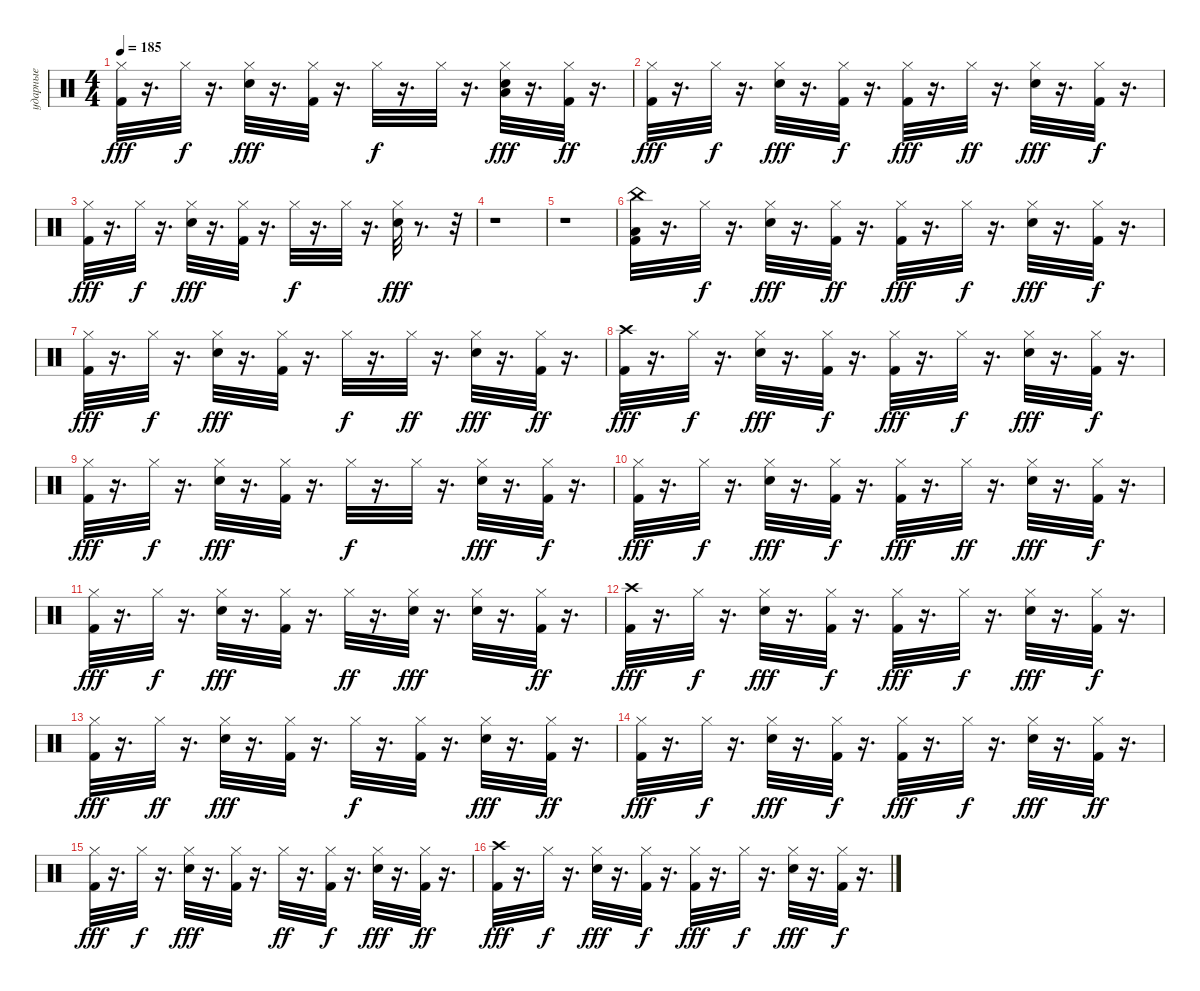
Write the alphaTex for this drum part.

\track ("ударные" "ударные") {instrument percussion}
\staff {score}
\articulation defaults
\ts (4 4)
\tempo 185
\clef neutral
\ks c
("Hi-Hat (closed)" "Kick (hit) 2").32{dy fff} r.16{d} "Hi-Hat (closed)".32{dy f} r.16{d} ("Hi-Hat (closed)" "Electric Snare (hit)").32{dy fff} r.16{d} ("Hi-Hat (closed)" "Kick (hit) 2").32 r.16{d} "Hi-Hat (closed)".32{dy f} r.16{d} "Hi-Hat (closed)".32 r.16{d} ("Low Floor Tom (hit)" "Hi-Hat (closed)" "Electric Snare (hit)").32{dy fff} r.16{d} ("Hi-Hat (closed)" "Kick (hit) 2").32{dy ff} r.16{d} |
("Hi-Hat (closed)" "Kick (hit) 2").32{dy fff} r.16{d} "Hi-Hat (closed)".32{dy f} r.16{d} ("Hi-Hat (closed)" "Electric Snare (hit)").32{dy fff} r.16{d} ("Hi-Hat (closed)" "Kick (hit) 2").32{dy f} r.16{d} ("Hi-Hat (closed)" "Kick (hit) 2").32{dy fff} r.16{d} "Hi-Hat (closed)".32{dy ff} r.16{d} ("Hi-Hat (closed)" "Electric Snare (hit)").32{dy fff} r.16{d} ("Hi-Hat (closed)" "Kick (hit) 2").32{dy f} r.16{d} |
("Hi-Hat (closed)" "Kick (hit) 2").32{dy fff} r.16{d} "Hi-Hat (closed)".32{dy f} r.16{d} ("Hi-Hat (closed)" "Electric Snare (hit)").32{dy fff} r.16{d} ("Hi-Hat (closed)" "Kick (hit) 2").32 r.16{d} "Hi-Hat (closed)".32{dy f} r.16{d} "Hi-Hat (closed)".32 r.16{d} ("Hi-Hat (closed)" "Electric Snare (hit)").32{dy fff} r.8{d} r.32 |
r.1 |
r.1 |
("Low Floor Tom (hit)" "China (hit)" "Kick (hit) 2").32 r.16{d} "Hi-Hat (closed)".32{dy f} r.16{d} ("Hi-Hat (closed)" "Electric Snare (hit)").32{dy fff} r.16{d} ("Hi-Hat (closed)" "Kick (hit) 2").32{dy ff} r.16{d} ("Hi-Hat (closed)" "Kick (hit) 2").32{dy fff} r.16{d} "Hi-Hat (closed)".32{dy f} r.16{d} ("Hi-Hat (closed)" "Electric Snare (hit)").32{dy fff} r.16{d} ("Hi-Hat (closed)" "Kick (hit) 2").32{dy f} r.16{d} |
("Hi-Hat (closed)" "Kick (hit) 2").32{dy fff} r.16{d} "Hi-Hat (closed)".32{dy f} r.16{d} ("Hi-Hat (closed)" "Electric Snare (hit)").32{dy fff} r.16{d} ("Hi-Hat (closed)" "Kick (hit) 2").32 r.16{d} "Hi-Hat (closed)".32{dy f} r.16{d} "Hi-Hat (closed)".32{dy ff} r.16{d} ("Hi-Hat (closed)" "Electric Snare (hit)").32{dy fff} r.16{d} ("Hi-Hat (closed)" "Kick (hit) 2").32{dy ff} r.16{d} |
("Crash high (hit)" "Kick (hit) 2").32{dy fff} r.16{d} "Hi-Hat (closed)".32{dy f} r.16{d} ("Hi-Hat (closed)" "Electric Snare (hit)").32{dy fff} r.16{d} ("Hi-Hat (closed)" "Kick (hit) 2").32{dy f} r.16{d} ("Hi-Hat (closed)" "Kick (hit) 2").32{dy fff} r.16{d} "Hi-Hat (closed)".32{dy f} r.16{d} ("Hi-Hat (closed)" "Electric Snare (hit)").32{dy fff} r.16{d} ("Hi-Hat (closed)" "Kick (hit) 2").32{dy f} r.16{d} |
("Hi-Hat (closed)" "Kick (hit) 2").32{dy fff} r.16{d} "Hi-Hat (closed)".32{dy f} r.16{d} ("Hi-Hat (closed)" "Electric Snare (hit)").32{dy fff} r.16{d} ("Hi-Hat (closed)" "Kick (hit) 2").32 r.16{d} "Hi-Hat (closed)".32{dy f} r.16{d} "Hi-Hat (closed)".32 r.16{d} ("Hi-Hat (closed)" "Electric Snare (hit)").32{dy fff} r.16{d} ("Hi-Hat (closed)" "Kick (hit) 2").32{dy f} r.16{d} |
("Hi-Hat (closed)" "Kick (hit) 2").32{dy fff} r.16{d} "Hi-Hat (closed)".32{dy f} r.16{d} ("Hi-Hat (closed)" "Electric Snare (hit)").32{dy fff} r.16{d} ("Hi-Hat (closed)" "Kick (hit) 2").32{dy f} r.16{d} ("Hi-Hat (closed)" "Kick (hit) 2").32{dy fff} r.16{d} "Hi-Hat (closed)".32{dy ff} r.16{d} ("Hi-Hat (closed)" "Electric Snare (hit)").32{dy fff} r.16{d} ("Hi-Hat (closed)" "Kick (hit) 2").32{dy f} r.16{d} |
("Hi-Hat (closed)" "Kick (hit) 2").32{dy fff} r.16{d} "Hi-Hat (closed)".32{dy f} r.16{d} ("Hi-Hat (closed)" "Electric Snare (hit)").32{dy fff} r.16{d} ("Hi-Hat (closed)" "Kick (hit) 2").32 r.16{d} "Hi-Hat (closed)".32{dy ff} r.16{d} ("Electric Snare (hit)" "Hi-Hat (closed)").32{dy fff} r.16{d} ("Hi-Hat (closed)" "Electric Snare (hit)").32 r.16{d} ("Hi-Hat (closed)" "Kick (hit) 2").32{dy ff} r.16{d} |
("Crash high (hit)" "Kick (hit) 2").32{dy fff} r.16{d} "Hi-Hat (closed)".32{dy f} r.16{d} ("Hi-Hat (closed)" "Electric Snare (hit)").32{dy fff} r.16{d} ("Hi-Hat (closed)" "Kick (hit) 2").32{dy f} r.16{d} ("Hi-Hat (closed)" "Kick (hit) 2").32{dy fff} r.16{d} "Hi-Hat (closed)".32{dy f} r.16{d} ("Hi-Hat (closed)" "Electric Snare (hit)").32{dy fff} r.16{d} ("Hi-Hat (closed)" "Kick (hit) 2").32{dy f} r.16{d} |
("Hi-Hat (closed)" "Kick (hit) 2").32{dy fff} r.16{d} "Hi-Hat (closed)".32{dy ff} r.16{d} ("Hi-Hat (closed)" "Electric Snare (hit)").32{dy fff} r.16{d} ("Hi-Hat (closed)" "Kick (hit) 2").32 r.16{d} "Hi-Hat (closed)".32{dy f} r.16{d} ("Kick (hit) 2" "Hi-Hat (closed)").32 r.16{d} ("Hi-Hat (closed)" "Electric Snare (hit)").32{dy fff} r.16{d} ("Hi-Hat (closed)" "Kick (hit) 2").32{dy ff} r.16{d} |
("Hi-Hat (closed)" "Kick (hit) 2").32{dy fff} r.16{d} "Hi-Hat (closed)".32{dy f} r.16{d} ("Hi-Hat (closed)" "Electric Snare (hit)").32{dy fff} r.16{d} ("Hi-Hat (closed)" "Kick (hit) 2").32{dy f} r.16{d} ("Hi-Hat (closed)" "Kick (hit) 2").32{dy fff} r.16{d} "Hi-Hat (closed)".32{dy f} r.16{d} ("Hi-Hat (closed)" "Electric Snare (hit)").32{dy fff} r.16{d} ("Hi-Hat (closed)" "Kick (hit) 2").32{dy ff} r.16{d} |
("Hi-Hat (closed)" "Kick (hit) 2").32{dy fff} r.16{d} "Hi-Hat (closed)".32{dy f} r.16{d} ("Hi-Hat (closed)" "Electric Snare (hit)").32{dy fff} r.16{d} ("Hi-Hat (closed)" "Kick (hit) 2").32 r.16{d} "Hi-Hat (closed)".32{dy ff} r.16{d} ("Kick (hit) 2" "Hi-Hat (closed)").32{dy f} r.16{d} ("Hi-Hat (closed)" "Electric Snare (hit)").32{dy fff} r.16{d} ("Hi-Hat (closed)" "Kick (hit) 2").32{dy ff} r.16{d} |
("Crash high (hit)" "Kick (hit) 2").32{dy fff} r.16{d} "Hi-Hat (closed)".32{dy f} r.16{d} ("Hi-Hat (closed)" "Electric Snare (hit)").32{dy fff} r.16{d} ("Hi-Hat (closed)" "Kick (hit) 2").32{dy f} r.16{d} ("Hi-Hat (closed)" "Kick (hit) 2").32{dy fff} r.16{d} "Hi-Hat (closed)".32{dy f} r.16{d} ("Hi-Hat (closed)" "Electric Snare (hit)").32{dy fff} r.16{d} ("Hi-Hat (closed)" "Kick (hit) 2").32{dy f} r.16{d}
